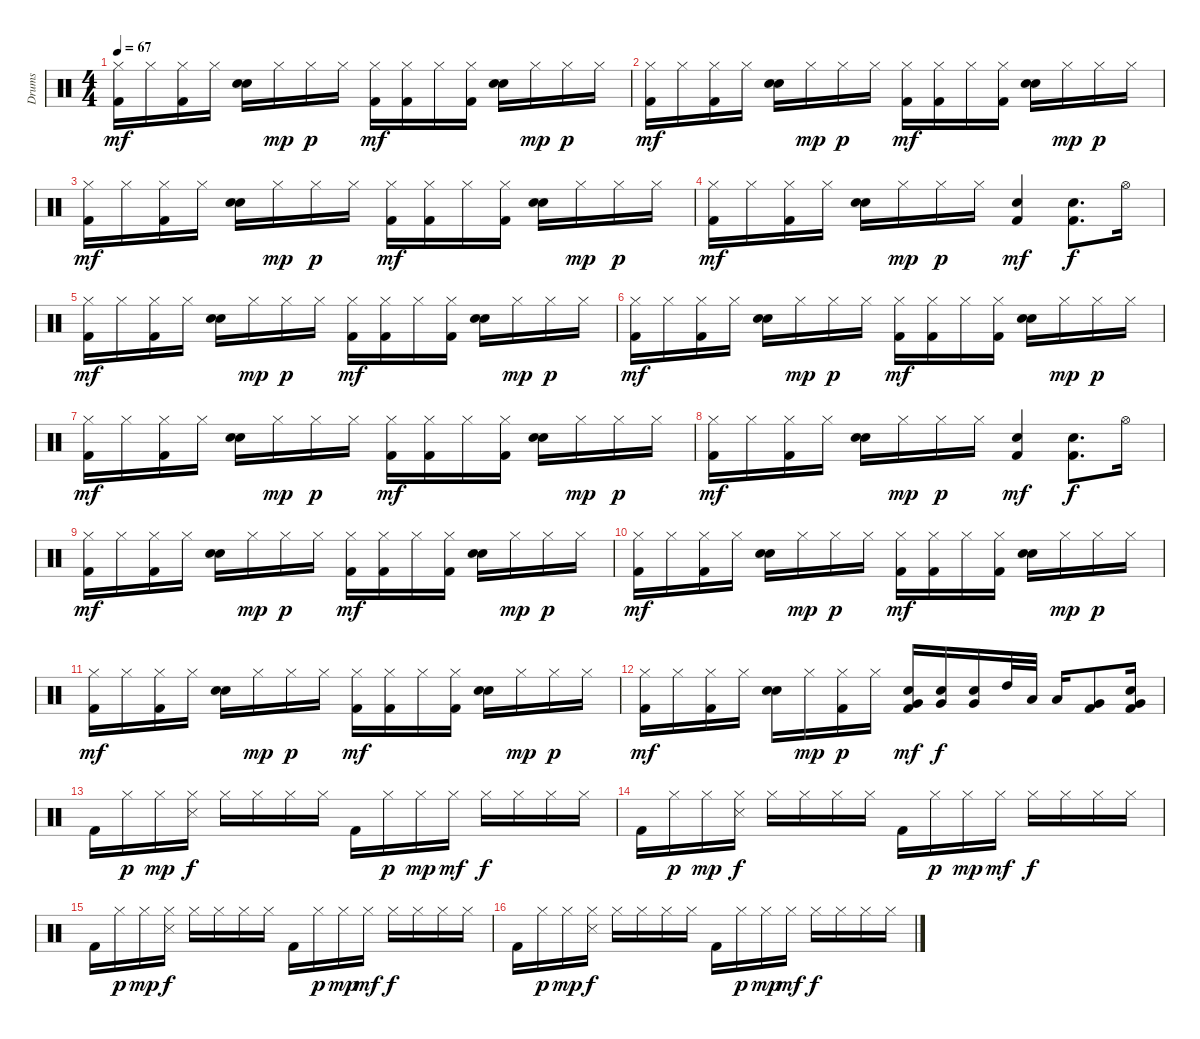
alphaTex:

\track ("Drums" "Drums") {instrument percussion}
\staff {score}
\articulation defaults
\ts (4 4)
\tempo 67
\clef neutral
\ks c
("Hi-Hat (closed)" "Kick (hit) 2").16{dy mf} "Hi-Hat (closed)".16 ("Hi-Hat (closed)" "Kick (hit) 2").16 "Hi-Hat (closed)".16 ("Hand Clap (hit)" "Snare (hit) 2").16 "Hi-Hat (closed)".16{dy mp} "Hi-Hat (closed)".16{dy p} "Hi-Hat (closed)".16 ("Hi-Hat (closed)" "Kick (hit) 2").16{dy mf} ("Hi-Hat (closed)" "Kick (hit) 2").16 "Hi-Hat (closed)".16 ("Hi-Hat (closed)" "Kick (hit) 2").16 ("Hand Clap (hit)" "Snare (hit) 2").16 "Hi-Hat (closed)".16{dy mp} "Hi-Hat (closed)".16{dy p} "Hi-Hat (closed)".16 |
("Hi-Hat (closed)" "Kick (hit) 2").16{dy mf} "Hi-Hat (closed)".16 ("Hi-Hat (closed)" "Kick (hit) 2").16 "Hi-Hat (closed)".16 ("Hand Clap (hit)" "Snare (hit) 2").16 "Hi-Hat (closed)".16{dy mp} "Hi-Hat (closed)".16{dy p} "Hi-Hat (closed)".16 ("Hi-Hat (closed)" "Kick (hit) 2").16{dy mf} ("Hi-Hat (closed)" "Kick (hit) 2").16 "Hi-Hat (closed)".16 ("Hi-Hat (closed)" "Kick (hit) 2").16 ("Hand Clap (hit)" "Snare (hit) 2").16 "Hi-Hat (closed)".16{dy mp} "Hi-Hat (closed)".16{dy p} "Hi-Hat (closed)".16 |
("Hi-Hat (closed)" "Kick (hit) 2").16{dy mf} "Hi-Hat (closed)".16 ("Hi-Hat (closed)" "Kick (hit) 2").16 "Hi-Hat (closed)".16 ("Hand Clap (hit)" "Snare (hit) 2").16 "Hi-Hat (closed)".16{dy mp} "Hi-Hat (closed)".16{dy p} "Hi-Hat (closed)".16 ("Hi-Hat (closed)" "Kick (hit) 2").16{dy mf} ("Hi-Hat (closed)" "Kick (hit) 2").16 "Hi-Hat (closed)".16 ("Hi-Hat (closed)" "Kick (hit) 2").16 ("Hand Clap (hit)" "Snare (hit) 2").16 "Hi-Hat (closed)".16{dy mp} "Hi-Hat (closed)".16{dy p} "Hi-Hat (closed)".16 |
("Hi-Hat (closed)" "Kick (hit) 2").16{dy mf} "Hi-Hat (closed)".16 ("Hi-Hat (closed)" "Kick (hit) 2").16 "Hi-Hat (closed)".16 ("Hand Clap (hit)" "Snare (hit) 2").16 "Hi-Hat (closed)".16{dy mp} "Hi-Hat (closed)".16{dy p} "Hi-Hat (closed)".16 ("Snare (hit) 2" "Kick (hit) 2").4{dy mf} ("Snare (hit) 2" "Kick (hit) 2").8{d dy f} "Hi-Hat (open)".16 |
("Hi-Hat (closed)" "Kick (hit) 2").16{dy mf} "Hi-Hat (closed)".16 ("Hi-Hat (closed)" "Kick (hit) 2").16 "Hi-Hat (closed)".16 ("Hand Clap (hit)" "Snare (hit) 2").16 "Hi-Hat (closed)".16{dy mp} "Hi-Hat (closed)".16{dy p} "Hi-Hat (closed)".16 ("Hi-Hat (closed)" "Kick (hit) 2").16{dy mf} ("Hi-Hat (closed)" "Kick (hit) 2").16 "Hi-Hat (closed)".16 ("Hi-Hat (closed)" "Kick (hit) 2").16 ("Hand Clap (hit)" "Snare (hit) 2").16 "Hi-Hat (closed)".16{dy mp} "Hi-Hat (closed)".16{dy p} "Hi-Hat (closed)".16 |
("Hi-Hat (closed)" "Kick (hit) 2").16{dy mf} "Hi-Hat (closed)".16 ("Hi-Hat (closed)" "Kick (hit) 2").16 "Hi-Hat (closed)".16 ("Hand Clap (hit)" "Snare (hit) 2").16 "Hi-Hat (closed)".16{dy mp} "Hi-Hat (closed)".16{dy p} "Hi-Hat (closed)".16 ("Hi-Hat (closed)" "Kick (hit) 2").16{dy mf} ("Hi-Hat (closed)" "Kick (hit) 2").16 "Hi-Hat (closed)".16 ("Hi-Hat (closed)" "Kick (hit) 2").16 ("Hand Clap (hit)" "Snare (hit) 2").16 "Hi-Hat (closed)".16{dy mp} "Hi-Hat (closed)".16{dy p} "Hi-Hat (closed)".16 |
("Hi-Hat (closed)" "Kick (hit) 2").16{dy mf} "Hi-Hat (closed)".16 ("Hi-Hat (closed)" "Kick (hit) 2").16 "Hi-Hat (closed)".16 ("Hand Clap (hit)" "Snare (hit) 2").16 "Hi-Hat (closed)".16{dy mp} "Hi-Hat (closed)".16{dy p} "Hi-Hat (closed)".16 ("Hi-Hat (closed)" "Kick (hit) 2").16{dy mf} ("Hi-Hat (closed)" "Kick (hit) 2").16 "Hi-Hat (closed)".16 ("Hi-Hat (closed)" "Kick (hit) 2").16 ("Hand Clap (hit)" "Snare (hit) 2").16 "Hi-Hat (closed)".16{dy mp} "Hi-Hat (closed)".16{dy p} "Hi-Hat (closed)".16 |
("Hi-Hat (closed)" "Kick (hit) 2").16{dy mf} "Hi-Hat (closed)".16 ("Hi-Hat (closed)" "Kick (hit) 2").16 "Hi-Hat (closed)".16 ("Hand Clap (hit)" "Snare (hit) 2").16 "Hi-Hat (closed)".16{dy mp} "Hi-Hat (closed)".16{dy p} "Hi-Hat (closed)".16 ("Snare (hit) 2" "Kick (hit) 2").4{dy mf} ("Snare (hit) 2" "Kick (hit) 2").8{d dy f} "Hi-Hat (open)".16 |
("Hi-Hat (closed)" "Kick (hit) 2").16{dy mf} "Hi-Hat (closed)".16 ("Hi-Hat (closed)" "Kick (hit) 2").16 "Hi-Hat (closed)".16 ("Hand Clap (hit)" "Snare (hit) 2").16 "Hi-Hat (closed)".16{dy mp} "Hi-Hat (closed)".16{dy p} "Hi-Hat (closed)".16 ("Hi-Hat (closed)" "Kick (hit) 2").16{dy mf} ("Hi-Hat (closed)" "Kick (hit) 2").16 "Hi-Hat (closed)".16 ("Hi-Hat (closed)" "Kick (hit) 2").16 ("Hand Clap (hit)" "Snare (hit) 2").16 "Hi-Hat (closed)".16{dy mp} "Hi-Hat (closed)".16{dy p} "Hi-Hat (closed)".16 |
("Hi-Hat (closed)" "Kick (hit) 2").16{dy mf} "Hi-Hat (closed)".16 ("Hi-Hat (closed)" "Kick (hit) 2").16 "Hi-Hat (closed)".16 ("Hand Clap (hit)" "Snare (hit) 2").16 "Hi-Hat (closed)".16{dy mp} "Hi-Hat (closed)".16{dy p} "Hi-Hat (closed)".16 ("Hi-Hat (closed)" "Kick (hit) 2").16{dy mf} ("Hi-Hat (closed)" "Kick (hit) 2").16 "Hi-Hat (closed)".16 ("Hi-Hat (closed)" "Kick (hit) 2").16 ("Hand Clap (hit)" "Snare (hit) 2").16 "Hi-Hat (closed)".16{dy mp} "Hi-Hat (closed)".16{dy p} "Hi-Hat (closed)".16 |
("Hi-Hat (closed)" "Kick (hit) 2").16{dy mf} "Hi-Hat (closed)".16 ("Hi-Hat (closed)" "Kick (hit) 2").16 "Hi-Hat (closed)".16 ("Hand Clap (hit)" "Snare (hit) 2").16 "Hi-Hat (closed)".16{dy mp} "Hi-Hat (closed)".16{dy p} "Hi-Hat (closed)".16 ("Hi-Hat (closed)" "Kick (hit) 2").16{dy mf} ("Hi-Hat (closed)" "Kick (hit) 2").16 "Hi-Hat (closed)".16 ("Hi-Hat (closed)" "Kick (hit) 2").16 ("Hand Clap (hit)" "Snare (hit) 2").16 "Hi-Hat (closed)".16{dy mp} "Hi-Hat (closed)".16{dy p} "Hi-Hat (closed)".16 |
("Hi-Hat (closed)" "Kick (hit) 2").16{dy mf} "Hi-Hat (closed)".16 ("Hi-Hat (closed)" "Kick (hit) 2").16 "Hi-Hat (closed)".16 ("Hand Clap (hit)" "Snare (hit) 2").16 "Hi-Hat (closed)".16{dy mp} ("Hi-Hat (closed)" "Kick (hit) 2").16{dy p} "Hi-Hat (closed)".16 ("Very Low Tom (hit)" "Snare (hit) 2" "Kick (hit) 2").16{dy mf} ("Very Low Tom (hit)" "Snare (hit) 2").16{dy f} ("Very Low Tom (hit)" "Snare (hit) 2").16 "High Tom (hit)".32 "Low Tom (hit)".32 "Low Tom (hit)".16 ("Very Low Tom (hit)" "Kick (hit) 2").8 ("Very Low Tom (hit)" "Snare (hit) 2" "Kick (hit) 2").16 |
"Kick (hit) 2".16 "Hi-Hat (closed)".16{dy p} "Hi-Hat (closed)".16{dy mp} ("Hi-Hat (closed)" "Snare (side stick) 3").16{dy f} "Hi-Hat (closed)".16 "Hi-Hat (closed)".16 "Hi-Hat (closed)".16 "Hi-Hat (closed)".16 "Kick (hit) 2".16 "Hi-Hat (closed)".16{dy p} "Hi-Hat (closed)".16{dy mp} "Hi-Hat (closed)".16{dy mf} "Hi-Hat (closed)".16{dy f} "Hi-Hat (closed)".16 "Hi-Hat (closed)".16 "Hi-Hat (closed)".16 |
"Kick (hit) 2".16 "Hi-Hat (closed)".16{dy p} "Hi-Hat (closed)".16{dy mp} ("Hi-Hat (closed)" "Snare (side stick) 3").16{dy f} "Hi-Hat (closed)".16 "Hi-Hat (closed)".16 "Hi-Hat (closed)".16 "Hi-Hat (closed)".16 "Kick (hit) 2".16 "Hi-Hat (closed)".16{dy p} "Hi-Hat (closed)".16{dy mp} "Hi-Hat (closed)".16{dy mf} "Hi-Hat (closed)".16{dy f} "Hi-Hat (closed)".16 "Hi-Hat (closed)".16 "Hi-Hat (closed)".16 |
"Kick (hit) 2".16 "Hi-Hat (closed)".16{dy p} "Hi-Hat (closed)".16{dy mp} ("Hi-Hat (closed)" "Snare (side stick) 3").16{dy f} "Hi-Hat (closed)".16 "Hi-Hat (closed)".16 "Hi-Hat (closed)".16 "Hi-Hat (closed)".16 "Kick (hit) 2".16 "Hi-Hat (closed)".16{dy p} "Hi-Hat (closed)".16{dy mp} "Hi-Hat (closed)".16{dy mf} "Hi-Hat (closed)".16{dy f} "Hi-Hat (closed)".16 "Hi-Hat (closed)".16 "Hi-Hat (closed)".16 |
"Kick (hit) 2".16 "Hi-Hat (closed)".16{dy p} "Hi-Hat (closed)".16{dy mp} ("Hi-Hat (closed)" "Snare (side stick) 3").16{dy f} "Hi-Hat (closed)".16 "Hi-Hat (closed)".16 "Hi-Hat (closed)".16 "Hi-Hat (closed)".16 "Kick (hit) 2".16 "Hi-Hat (closed)".16{dy p} "Hi-Hat (closed)".16{dy mp} "Hi-Hat (closed)".16{dy mf} "Hi-Hat (closed)".16{dy f} "Hi-Hat (closed)".16 "Hi-Hat (closed)".16 "Hi-Hat (closed)".16
